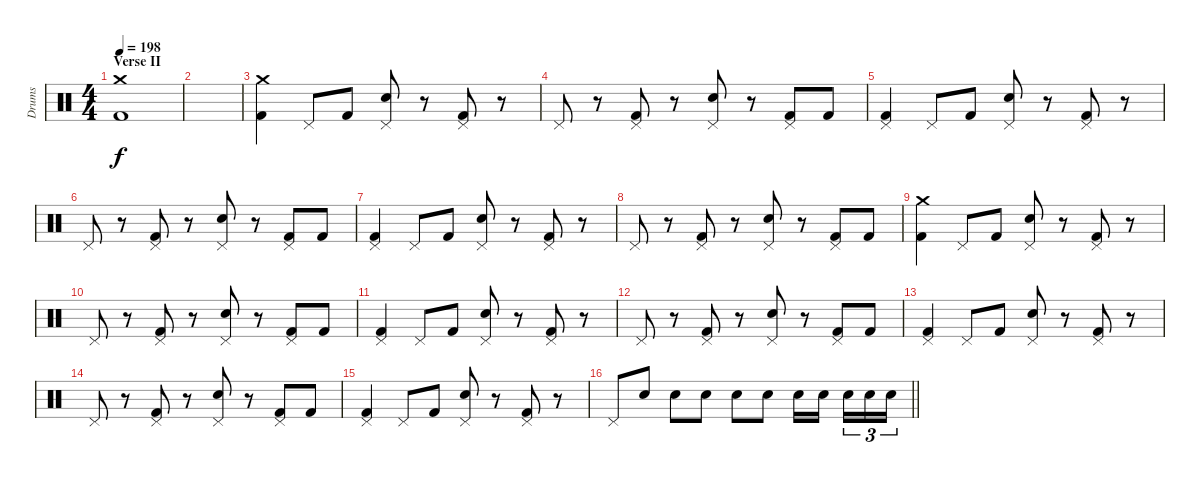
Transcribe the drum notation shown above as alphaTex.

\track ("Drums" "Drums") {instrument percussion}
\staff {score}
\articulation defaults
\ts (4 4)
\section ("" "Verse II")
\tempo 198
\clef neutral
\ks c
("Crash medium (hit)" "Kick (hit) 2").1{dy f} |
|
("Crash medium (hit)" "Kick (hit) 2").4 "Pedal Hi-Hat (hit)".8 "Kick (hit) 2".8 ("Pedal Hi-Hat (hit)" "Electric Snare (hit)").8 r.8 ("Pedal Hi-Hat (hit)" "Kick (hit) 2").8 r.8 |
"Pedal Hi-Hat (hit)".8 r.8 ("Pedal Hi-Hat (hit)" "Kick (hit) 2").8 r.8 ("Pedal Hi-Hat (hit)" "Electric Snare (hit)").8 r.8 ("Pedal Hi-Hat (hit)" "Kick (hit) 2").8 "Kick (hit) 2".8 |
("Pedal Hi-Hat (hit)" "Kick (hit) 2").4 "Pedal Hi-Hat (hit)".8 "Kick (hit) 2".8 ("Pedal Hi-Hat (hit)" "Electric Snare (hit)").8 r.8 ("Pedal Hi-Hat (hit)" "Kick (hit) 2").8 r.8 |
"Pedal Hi-Hat (hit)".8 r.8 ("Pedal Hi-Hat (hit)" "Kick (hit) 2").8 r.8 ("Pedal Hi-Hat (hit)" "Electric Snare (hit)").8 r.8 ("Pedal Hi-Hat (hit)" "Kick (hit) 2").8 "Kick (hit) 2".8 |
("Pedal Hi-Hat (hit)" "Kick (hit) 2").4 "Pedal Hi-Hat (hit)".8 "Kick (hit) 2".8 ("Pedal Hi-Hat (hit)" "Electric Snare (hit)").8 r.8 ("Pedal Hi-Hat (hit)" "Kick (hit) 2").8 r.8 |
"Pedal Hi-Hat (hit)".8 r.8 ("Pedal Hi-Hat (hit)" "Kick (hit) 2").8 r.8 ("Pedal Hi-Hat (hit)" "Electric Snare (hit)").8 r.8 ("Pedal Hi-Hat (hit)" "Kick (hit) 2").8 "Kick (hit) 2".8 |
("Crash medium (hit)" "Kick (hit) 2").4 "Pedal Hi-Hat (hit)".8 "Kick (hit) 2".8 ("Pedal Hi-Hat (hit)" "Electric Snare (hit)").8 r.8 ("Pedal Hi-Hat (hit)" "Kick (hit) 2").8 r.8 |
"Pedal Hi-Hat (hit)".8 r.8 ("Pedal Hi-Hat (hit)" "Kick (hit) 2").8 r.8 ("Pedal Hi-Hat (hit)" "Electric Snare (hit)").8 r.8 ("Pedal Hi-Hat (hit)" "Kick (hit) 2").8 "Kick (hit) 2".8 |
("Pedal Hi-Hat (hit)" "Kick (hit) 2").4 "Pedal Hi-Hat (hit)".8 "Kick (hit) 2".8 ("Pedal Hi-Hat (hit)" "Electric Snare (hit)").8 r.8 ("Pedal Hi-Hat (hit)" "Kick (hit) 2").8 r.8 |
"Pedal Hi-Hat (hit)".8 r.8 ("Pedal Hi-Hat (hit)" "Kick (hit) 2").8 r.8 ("Pedal Hi-Hat (hit)" "Electric Snare (hit)").8 r.8 ("Pedal Hi-Hat (hit)" "Kick (hit) 2").8 "Kick (hit) 2".8 |
("Pedal Hi-Hat (hit)" "Kick (hit) 2").4 "Pedal Hi-Hat (hit)".8 "Kick (hit) 2".8 ("Pedal Hi-Hat (hit)" "Electric Snare (hit)").8 r.8 ("Pedal Hi-Hat (hit)" "Kick (hit) 2").8 r.8 |
"Pedal Hi-Hat (hit)".8 r.8 ("Pedal Hi-Hat (hit)" "Kick (hit) 2").8 r.8 ("Pedal Hi-Hat (hit)" "Electric Snare (hit)").8 r.8 ("Pedal Hi-Hat (hit)" "Kick (hit) 2").8 "Kick (hit) 2".8 |
("Pedal Hi-Hat (hit)" "Kick (hit) 2").4 "Pedal Hi-Hat (hit)".8 "Kick (hit) 2".8 ("Pedal Hi-Hat (hit)" "Electric Snare (hit)").8 r.8 ("Pedal Hi-Hat (hit)" "Kick (hit) 2").8 r.8 |
\barLineRight lightlight "Pedal Hi-Hat (hit)".8 "Electric Snare (hit)".8 "Electric Snare (hit)".8 "Electric Snare (hit)".8 "Electric Snare (hit)".8 "Electric Snare (hit)".8 "Electric Snare (hit)".16 "Electric Snare (hit)".16{beam splitsecondary} "Electric Snare (hit)".16{tu (3 2)} "Electric Snare (hit)".16{tu (3 2)} "Electric Snare (hit)".16{tu (3 2)}
